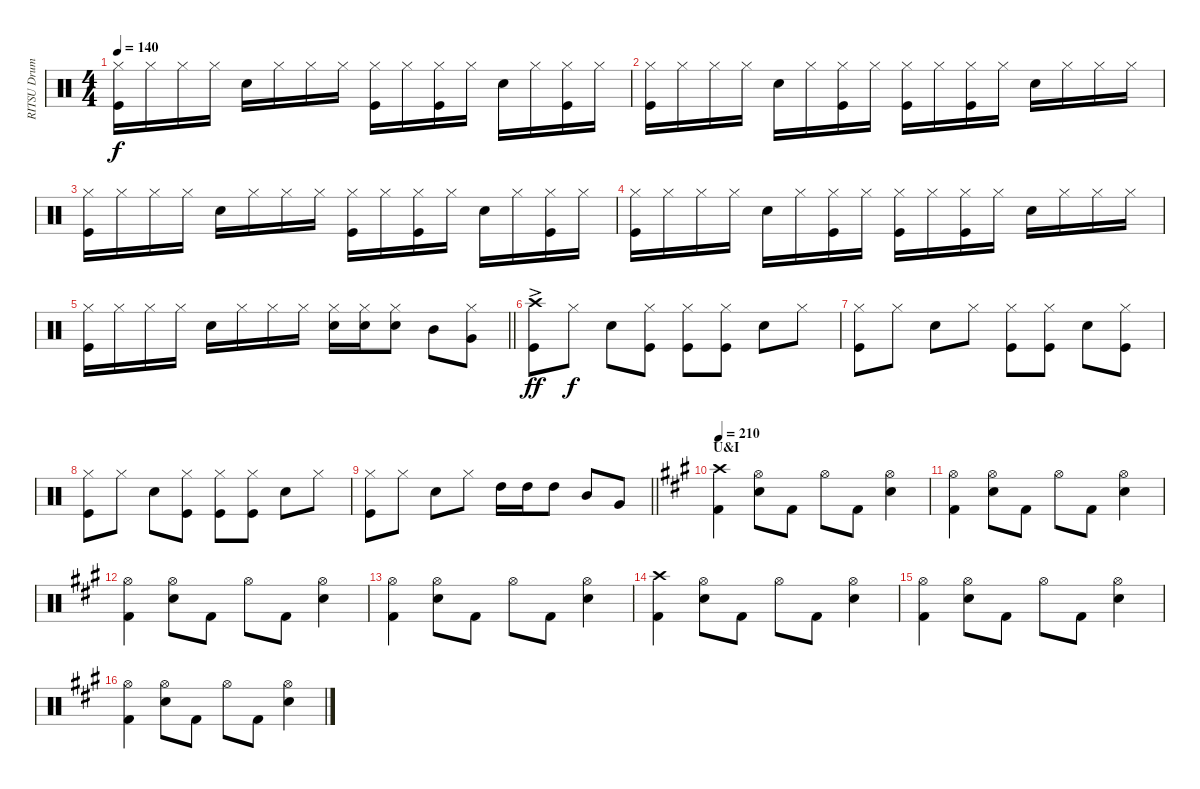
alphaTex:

\track ("RITSU Drums" "RITSU Drum") {instrument percussion}
\staff {score}
\articulation defaults
\ts (4 4)
\tempo 140
\clef neutral
\ks c
("Kick (hit)" "Hi-Hat (closed)").16{dy f} "Hi-Hat (closed)".16 "Hi-Hat (closed)".16 "Hi-Hat (closed)".16 "Snare (hit) 2".16 "Hi-Hat (closed)".16 "Hi-Hat (closed)".16 "Hi-Hat (closed)".16 ("Hi-Hat (closed)" "Kick (hit)").16 "Hi-Hat (closed)".16 ("Hi-Hat (closed)" "Kick (hit)").16 "Hi-Hat (closed)".16 "Snare (hit) 2".16 "Hi-Hat (closed)".16 ("Hi-Hat (closed)" "Kick (hit)").16 "Hi-Hat (closed)".16 |
("Hi-Hat (closed)" "Kick (hit)").16 "Hi-Hat (closed)".16 "Hi-Hat (closed)".16 "Hi-Hat (closed)".16 "Snare (hit) 2".16 "Hi-Hat (closed)".16 ("Hi-Hat (closed)" "Kick (hit)").16 "Hi-Hat (closed)".16 ("Hi-Hat (closed)" "Kick (hit)").16 "Hi-Hat (closed)".16 ("Hi-Hat (closed)" "Kick (hit)").16 "Hi-Hat (closed)".16 "Snare (hit) 2".16 "Hi-Hat (closed)".16 "Hi-Hat (closed)".16 "Hi-Hat (closed)".16 |
("Kick (hit)" "Hi-Hat (closed)").16 "Hi-Hat (closed)".16 "Hi-Hat (closed)".16 "Hi-Hat (closed)".16 "Snare (hit) 2".16 "Hi-Hat (closed)".16 "Hi-Hat (closed)".16 "Hi-Hat (closed)".16 ("Hi-Hat (closed)" "Kick (hit)").16 "Hi-Hat (closed)".16 ("Hi-Hat (closed)" "Kick (hit)").16 "Hi-Hat (closed)".16 "Snare (hit) 2".16 "Hi-Hat (closed)".16 ("Kick (hit)" "Hi-Hat (closed)").16 "Hi-Hat (closed)".16 |
("Hi-Hat (closed)" "Kick (hit)").16 "Hi-Hat (closed)".16 "Hi-Hat (closed)".16 "Hi-Hat (closed)".16 "Snare (hit) 2".16 "Hi-Hat (closed)".16 ("Hi-Hat (closed)" "Kick (hit)").16 "Hi-Hat (closed)".16 ("Hi-Hat (closed)" "Kick (hit)").16 "Hi-Hat (closed)".16 ("Hi-Hat (closed)" "Kick (hit)").16 "Hi-Hat (closed)".16 "Snare (hit) 2".16 "Hi-Hat (closed)".16 "Hi-Hat (closed)".16 "Hi-Hat (closed)".16 |
\barLineRight lightlight
("Hi-Hat (closed)" "Kick (hit)").16 "Hi-Hat (closed)".16 "Hi-Hat (closed)".16 "Hi-Hat (closed)".16 "Snare (hit) 2".16 "Hi-Hat (closed)".16 "Hi-Hat (closed)".16 "Hi-Hat (closed)".16 ("Hi-Hat (closed)" "Snare (hit) 2").16 ("Hi-Hat (closed)" "Snare (hit) 2").16 ("Hi-Hat (closed)" "Snare (hit) 2").8 "Mid Tom (hit)".8 ("Hi-Hat (closed)" "Very Low Tom (hit)").8 |
("Crash high (hit)"{ac} "Kick (hit)").8{dy ff} "Hi-Hat (closed)".8{dy f} "Snare (hit) 2".8 ("Hi-Hat (closed)" "Kick (hit)").8 ("Hi-Hat (closed)" "Kick (hit)").8 ("Kick (hit)" "Hi-Hat (closed)").8 "Snare (hit) 2".8 "Hi-Hat (closed)".8 |
("Hi-Hat (closed)" "Kick (hit)").8 "Hi-Hat (closed)".8 "Snare (hit) 2".8 "Hi-Hat (closed)".8 ("Hi-Hat (closed)" "Kick (hit)").8 ("Kick (hit)" "Hi-Hat (closed)").8 "Snare (hit) 2".8 ("Hi-Hat (closed)" "Kick (hit)").8 |
("Hi-Hat (closed)" "Kick (hit)").8 "Hi-Hat (closed)".8 "Snare (hit) 2".8 ("Hi-Hat (closed)" "Kick (hit)").8 ("Hi-Hat (closed)" "Kick (hit)").8 ("Kick (hit)" "Hi-Hat (closed)").8 "Snare (hit) 2".8 "Hi-Hat (closed)".8 |
\barLineRight lightlight
("Kick (hit)" "Hi-Hat (closed)").8 "Hi-Hat (closed)".8 "Snare (hit) 2".8 "Hi-Hat (closed)".8 "High Tom (hit)".16 "High Tom (hit)".16 "High Tom (hit)".8 "Mid Tom (hit)".8 "Very Low Tom (hit)".8 |
\section ("" "U&I")
\tempo 210
\ks a
("Crash high (hit)" "Kick (hit) 2").4 ("Hi-Hat (open)" "Electric Snare (hit)").8 "Kick (hit) 2".8 "Hi-Hat (open)".8 "Kick (hit) 2".8 ("Hi-Hat (open)" "Electric Snare (hit)").4 |
("Hi-Hat (open)" "Kick (hit) 2").4 ("Hi-Hat (open)" "Electric Snare (hit)").8 "Kick (hit) 2".8 "Hi-Hat (open)".8 "Kick (hit) 2".8 ("Hi-Hat (open)" "Electric Snare (hit)").4 |
("Hi-Hat (open)" "Kick (hit) 2").4 ("Hi-Hat (open)" "Electric Snare (hit)").8 "Kick (hit) 2".8 "Hi-Hat (open)".8 "Kick (hit) 2".8 ("Hi-Hat (open)" "Electric Snare (hit)").4 |
("Hi-Hat (open)" "Kick (hit) 2").4 ("Hi-Hat (open)" "Electric Snare (hit)").8 "Kick (hit) 2".8 "Hi-Hat (open)".8 "Kick (hit) 2".8 ("Hi-Hat (open)" "Electric Snare (hit)").4 |
("Crash high (hit)" "Kick (hit) 2").4 ("Hi-Hat (open)" "Electric Snare (hit)").8 "Kick (hit) 2".8 "Hi-Hat (open)".8 "Kick (hit) 2".8 ("Hi-Hat (open)" "Electric Snare (hit)").4 |
("Hi-Hat (open)" "Kick (hit) 2").4 ("Hi-Hat (open)" "Electric Snare (hit)").8 "Kick (hit) 2".8 "Hi-Hat (open)".8 "Kick (hit) 2".8 ("Hi-Hat (open)" "Electric Snare (hit)").4 |
("Hi-Hat (open)" "Kick (hit) 2").4 ("Hi-Hat (open)" "Electric Snare (hit)").8 "Kick (hit) 2".8 "Hi-Hat (open)".8 "Kick (hit) 2".8 ("Hi-Hat (open)" "Electric Snare (hit)").4
